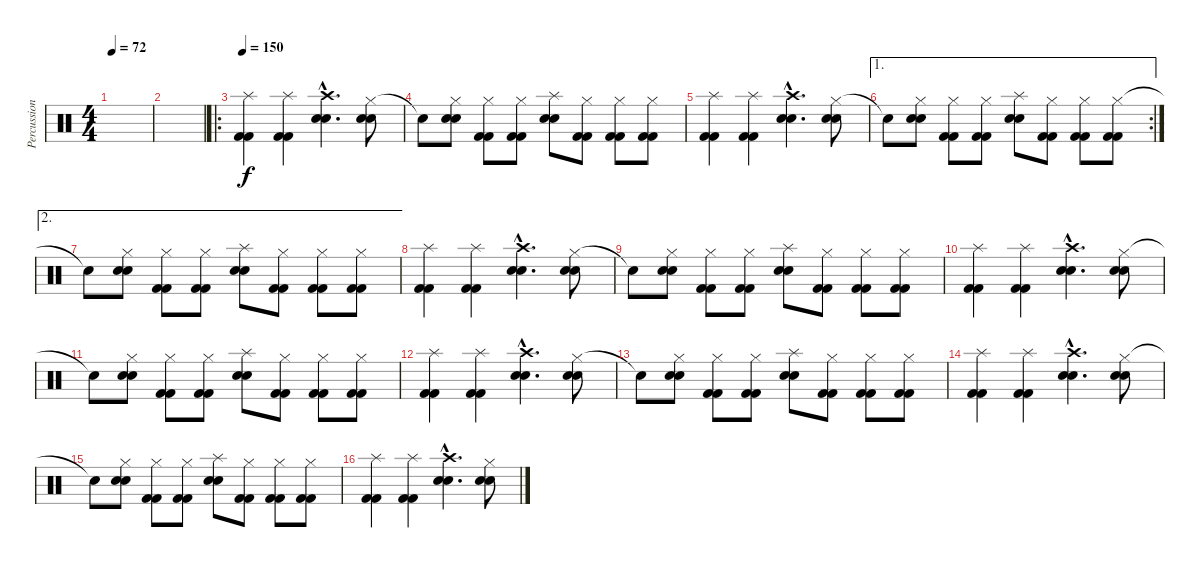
\track ("Percussion" "Percussion") {instrument percussion}
\staff {score}
\articulation defaults
\ts (4 4)
\tempo 72
\clef neutral
\ks c
|
|
\ro
\tempo 146
\tempo 150
("Splash (hit)" "Kick (hit) 2" "Kick (hit) 2").4 ("Splash (hit)" "Kick (hit) 2" "Kick (hit) 2").4 ("Crash high (hit)"{hac} "Snare (hit) 2"{hac} "Snare (hit) 2"{hac}).4{d} ("Hi-Hat (closed)" "Snare (hit) 2" "Snare (hit) 2").8 |
"Snare (hit) 2"{t}.8 ("Hi-Hat (closed)" "Snare (hit) 2" "Snare (hit) 2").8 ("Hi-Hat (closed)" "Kick (hit) 2" "Kick (hit) 2").8 ("Hi-Hat (closed)" "Kick (hit) 2" "Kick (hit) 2").8 ("Splash (hit)" "Snare (hit) 2" "Snare (hit) 2").8 ("Hi-Hat (closed)" "Kick (hit) 2" "Kick (hit) 2").8 ("Hi-Hat (closed)" "Kick (hit) 2" "Kick (hit) 2").8 ("Hi-Hat (closed)" "Kick (hit) 2" "Kick (hit) 2").8 |
("Splash (hit)" "Kick (hit) 2" "Kick (hit) 2").4 ("Splash (hit)" "Kick (hit) 2" "Kick (hit) 2").4 ("Crash high (hit)"{hac} "Snare (hit) 2"{hac} "Snare (hit) 2"{hac}).4{d} ("Hi-Hat (closed)" "Snare (hit) 2" "Snare (hit) 2").8 |
\ae 1
\rc 2 "Snare (hit) 2"{t}.8
("Hi-Hat (closed)" "Snare (hit) 2" "Snare (hit) 2").8 ("Hi-Hat (closed)" "Kick (hit) 2" "Kick (hit) 2").8 ("Hi-Hat (closed)" "Kick (hit) 2" "Kick (hit) 2").8 ("Splash (hit)" "Snare (hit) 2" "Snare (hit) 2").8 ("Hi-Hat (closed)" "Kick (hit) 2" "Kick (hit) 2").8 ("Hi-Hat (closed)" "Kick (hit) 2" "Kick (hit) 2").8 ("Hi-Hat (closed)" "Kick (hit) 2" "Kick (hit) 2").8 |
\ae 2 "Snare (hit) 2"{t}.8
("Hi-Hat (closed)" "Snare (hit) 2" "Snare (hit) 2").8 ("Hi-Hat (closed)" "Kick (hit) 2" "Kick (hit) 2").8 ("Hi-Hat (closed)" "Kick (hit) 2" "Kick (hit) 2").8 ("Splash (hit)" "Snare (hit) 2" "Snare (hit) 2").8 ("Hi-Hat (closed)" "Kick (hit) 2" "Kick (hit) 2").8 ("Hi-Hat (closed)" "Kick (hit) 2" "Kick (hit) 2").8 ("Hi-Hat (closed)" "Kick (hit) 2" "Kick (hit) 2").8 |
("Splash (hit)" "Kick (hit) 2" "Kick (hit) 2").4 ("Splash (hit)" "Kick (hit) 2" "Kick (hit) 2").4 ("Crash high (hit)"{hac} "Snare (hit) 2"{hac} "Snare (hit) 2"{hac}).4{d} ("Hi-Hat (closed)" "Snare (hit) 2" "Snare (hit) 2").8 |
"Snare (hit) 2"{t}.8 ("Hi-Hat (closed)" "Snare (hit) 2" "Snare (hit) 2").8 ("Hi-Hat (closed)" "Kick (hit) 2" "Kick (hit) 2").8 ("Hi-Hat (closed)" "Kick (hit) 2" "Kick (hit) 2").8 ("Splash (hit)" "Snare (hit) 2" "Snare (hit) 2").8 ("Hi-Hat (closed)" "Kick (hit) 2" "Kick (hit) 2").8 ("Hi-Hat (closed)" "Kick (hit) 2" "Kick (hit) 2").8 ("Hi-Hat (closed)" "Kick (hit) 2" "Kick (hit) 2").8 |
("Splash (hit)" "Kick (hit) 2" "Kick (hit) 2").4 ("Splash (hit)" "Kick (hit) 2" "Kick (hit) 2").4 ("Crash high (hit)"{hac} "Snare (hit) 2"{hac} "Snare (hit) 2"{hac}).4{d} ("Hi-Hat (closed)" "Snare (hit) 2" "Snare (hit) 2").8 |
"Snare (hit) 2"{t}.8 ("Hi-Hat (closed)" "Snare (hit) 2" "Snare (hit) 2").8 ("Hi-Hat (closed)" "Kick (hit) 2" "Kick (hit) 2").8 ("Hi-Hat (closed)" "Kick (hit) 2" "Kick (hit) 2").8 ("Splash (hit)" "Snare (hit) 2" "Snare (hit) 2").8 ("Hi-Hat (closed)" "Kick (hit) 2" "Kick (hit) 2").8 ("Hi-Hat (closed)" "Kick (hit) 2" "Kick (hit) 2").8 ("Hi-Hat (closed)" "Kick (hit) 2" "Kick (hit) 2").8 |
("Splash (hit)" "Kick (hit) 2" "Kick (hit) 2").4 ("Splash (hit)" "Kick (hit) 2" "Kick (hit) 2").4 ("Crash high (hit)"{hac} "Snare (hit) 2"{hac} "Snare (hit) 2"{hac}).4{d} ("Hi-Hat (closed)" "Snare (hit) 2" "Snare (hit) 2").8 |
"Snare (hit) 2"{t}.8 ("Hi-Hat (closed)" "Snare (hit) 2" "Snare (hit) 2").8 ("Hi-Hat (closed)" "Kick (hit) 2" "Kick (hit) 2").8 ("Hi-Hat (closed)" "Kick (hit) 2" "Kick (hit) 2").8 ("Splash (hit)" "Snare (hit) 2" "Snare (hit) 2").8 ("Hi-Hat (closed)" "Kick (hit) 2" "Kick (hit) 2").8 ("Hi-Hat (closed)" "Kick (hit) 2" "Kick (hit) 2").8 ("Hi-Hat (closed)" "Kick (hit) 2" "Kick (hit) 2").8 |
("Splash (hit)" "Kick (hit) 2" "Kick (hit) 2").4 ("Splash (hit)" "Kick (hit) 2" "Kick (hit) 2").4 ("Crash high (hit)"{hac} "Snare (hit) 2"{hac} "Snare (hit) 2"{hac}).4{d} ("Hi-Hat (closed)" "Snare (hit) 2" "Snare (hit) 2").8 |
"Snare (hit) 2"{t}.8 ("Hi-Hat (closed)" "Snare (hit) 2" "Snare (hit) 2").8 ("Hi-Hat (closed)" "Kick (hit) 2" "Kick (hit) 2").8 ("Hi-Hat (closed)" "Kick (hit) 2" "Kick (hit) 2").8 ("Splash (hit)" "Snare (hit) 2" "Snare (hit) 2").8 ("Hi-Hat (closed)" "Kick (hit) 2" "Kick (hit) 2").8 ("Hi-Hat (closed)" "Kick (hit) 2" "Kick (hit) 2").8 ("Hi-Hat (closed)" "Kick (hit) 2" "Kick (hit) 2").8 |
("Splash (hit)" "Kick (hit) 2" "Kick (hit) 2").4 ("Splash (hit)" "Kick (hit) 2" "Kick (hit) 2").4 ("Crash high (hit)"{hac} "Snare (hit) 2"{hac} "Snare (hit) 2"{hac}).4{d} ("Hi-Hat (closed)" "Snare (hit) 2" "Snare (hit) 2").8
